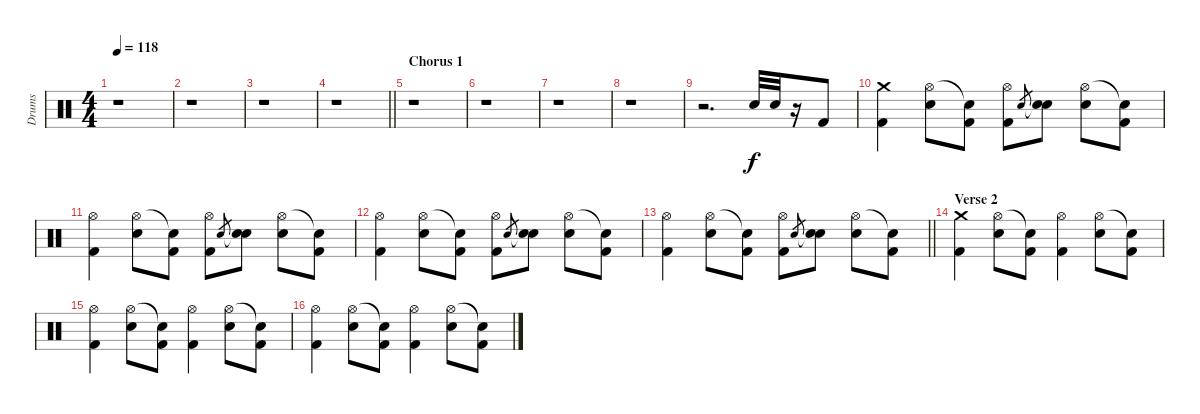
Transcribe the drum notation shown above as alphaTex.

\track ("Drums" "Drums") {instrument percussion}
\staff {score}
\articulation defaults
\ts (4 4)
\tempo 118
\clef neutral
\ks c
r.1{dy f} |
r.1 |
r.1 |
\barLineRight lightlight
r.1 |
\section ("" "Chorus 1")
r.1 |
r.1 |
r.1 |
r.1 |
r.2{d} "Electric Snare (hit)".32 "Electric Snare (hit)".32 r.16 "Kick (hit) 2".8 |
("Crash medium (hit)" "Kick (hit) 2").4 ("Hi-Hat (open)" "Electric Snare (hit)").8 ("Snare (hit)"{t} "Kick (hit) 2").8 ("Hi-Hat (open)" "Kick (hit) 2").8 "Electric Snare (hit)".8{gr} ("Snare (hit)"{t} "Electric Snare (hit)").8 ("Hi-Hat (open)" "Electric Snare (hit)").8 ("Snare (hit)"{t} "Kick (hit) 2").8 |
("Hi-Hat (open)" "Kick (hit) 2").4 ("Hi-Hat (open)" "Electric Snare (hit)").8 ("Snare (hit)"{t} "Kick (hit) 2").8 ("Hi-Hat (open)" "Kick (hit) 2").8 "Electric Snare (hit)".8{gr} ("Snare (hit)"{t} "Electric Snare (hit)").8 ("Hi-Hat (open)" "Electric Snare (hit)").8 ("Snare (hit)"{t} "Kick (hit) 2").8 |
("Hi-Hat (open)" "Kick (hit) 2").4 ("Hi-Hat (open)" "Electric Snare (hit)").8 ("Snare (hit)"{t} "Kick (hit) 2").8 ("Hi-Hat (open)" "Kick (hit) 2").8 "Electric Snare (hit)".8{gr} ("Snare (hit)"{t} "Electric Snare (hit)").8 ("Hi-Hat (open)" "Electric Snare (hit)").8 ("Snare (hit)"{t} "Kick (hit) 2").8 |
\barLineRight lightlight
("Hi-Hat (open)" "Kick (hit) 2").4 ("Hi-Hat (open)" "Electric Snare (hit)").8 ("Snare (hit)"{t} "Kick (hit) 2").8 ("Hi-Hat (open)" "Kick (hit) 2").8 "Electric Snare (hit)".8{gr} ("Snare (hit)"{t} "Electric Snare (hit)").8 ("Hi-Hat (open)" "Electric Snare (hit)").8 ("Snare (hit)"{t} "Kick (hit) 2").8 |
\section ("" "Verse 2")
("Crash medium (hit)" "Kick (hit) 2").4 ("Hi-Hat (open)" "Electric Snare (hit)").8 ("Snare (hit)"{t} "Kick (hit) 2").8 ("Hi-Hat (open)" "Kick (hit) 2").4 ("Hi-Hat (open)" "Electric Snare (hit)").8 ("Snare (hit)"{t} "Kick (hit) 2").8 |
("Hi-Hat (open)" "Kick (hit) 2").4 ("Hi-Hat (open)" "Electric Snare (hit)").8 ("Snare (hit)"{t} "Kick (hit) 2").8 ("Hi-Hat (open)" "Kick (hit) 2").4 ("Hi-Hat (open)" "Electric Snare (hit)").8 ("Snare (hit)"{t} "Kick (hit) 2").8 |
("Hi-Hat (open)" "Kick (hit) 2").4 ("Hi-Hat (open)" "Electric Snare (hit)").8 ("Snare (hit)"{t} "Kick (hit) 2").8 ("Hi-Hat (open)" "Kick (hit) 2").4 ("Hi-Hat (open)" "Electric Snare (hit)").8 ("Snare (hit)"{t} "Kick (hit) 2").8
